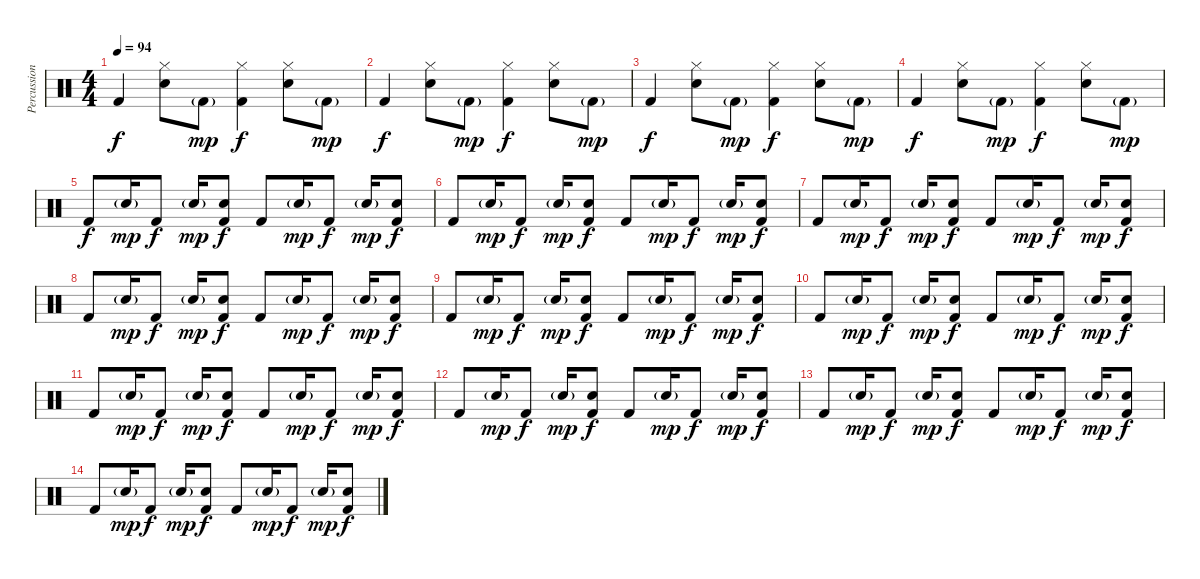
\track ("Percussion" "Percussion") {instrument percussion}
\staff {score}
\articulation defaults
\ts (4 4)
\tempo 94
\clef neutral
\ks c "Kick (hit) 2".4{dy f}
("Hi-Hat (closed)" "Snare (hit) 2").8 "Kick (hit) 2"{g}.8{dy mp} ("Hi-Hat (closed)" "Kick (hit) 2").4{dy f} ("Hi-Hat (closed)" "Snare (hit) 2").8 "Kick (hit) 2"{g}.8{dy mp} |
"Kick (hit) 2".4{dy f} ("Hi-Hat (closed)" "Snare (hit) 2").8 "Kick (hit) 2"{g}.8{dy mp} ("Hi-Hat (closed)" "Kick (hit) 2").4{dy f} ("Hi-Hat (closed)" "Snare (hit) 2").8 "Kick (hit) 2"{g}.8{dy mp} |
"Kick (hit) 2".4{dy f} ("Hi-Hat (closed)" "Snare (hit) 2").8 "Kick (hit) 2"{g}.8{dy mp} ("Hi-Hat (closed)" "Kick (hit) 2").4{dy f} ("Hi-Hat (closed)" "Snare (hit) 2").8 "Kick (hit) 2"{g}.8{dy mp} |
"Kick (hit) 2".4{dy f} ("Hi-Hat (closed)" "Snare (hit) 2").8 "Kick (hit) 2"{g}.8{dy mp} ("Hi-Hat (closed)" "Kick (hit) 2").4{dy f} ("Hi-Hat (closed)" "Snare (hit) 2").8 "Kick (hit) 2"{g}.8{dy mp} |
"Kick (hit) 2".8{dy f} "Snare (hit) 2"{g}.16{dy mp} "Kick (hit) 2".8{dy f} "Snare (hit) 2"{g}.16{dy mp} ("Snare (hit) 2" "Kick (hit) 2").8{dy f} "Kick (hit) 2".8 "Snare (hit) 2"{g}.16{dy mp} "Kick (hit) 2".8{dy f} "Snare (hit) 2"{g}.16{dy mp} ("Snare (hit) 2" "Kick (hit) 2").8{dy f} |
"Kick (hit) 2".8 "Snare (hit) 2"{g}.16{dy mp} "Kick (hit) 2".8{dy f} "Snare (hit) 2"{g}.16{dy mp} ("Snare (hit) 2" "Kick (hit) 2").8{dy f} "Kick (hit) 2".8 "Snare (hit) 2"{g}.16{dy mp} "Kick (hit) 2".8{dy f} "Snare (hit) 2"{g}.16{dy mp} ("Snare (hit) 2" "Kick (hit) 2").8{dy f} |
"Kick (hit) 2".8 "Snare (hit) 2"{g}.16{dy mp} "Kick (hit) 2".8{dy f} "Snare (hit) 2"{g}.16{dy mp} ("Snare (hit) 2" "Kick (hit) 2").8{dy f} "Kick (hit) 2".8 "Snare (hit) 2"{g}.16{dy mp} "Kick (hit) 2".8{dy f} "Snare (hit) 2"{g}.16{dy mp} ("Snare (hit) 2" "Kick (hit) 2").8{dy f} |
"Kick (hit) 2".8 "Snare (hit) 2"{g}.16{dy mp} "Kick (hit) 2".8{dy f} "Snare (hit) 2"{g}.16{dy mp} ("Snare (hit) 2" "Kick (hit) 2").8{dy f} "Kick (hit) 2".8 "Snare (hit) 2"{g}.16{dy mp} "Kick (hit) 2".8{dy f} "Snare (hit) 2"{g}.16{dy mp} ("Snare (hit) 2" "Kick (hit) 2").8{dy f} |
"Kick (hit) 2".8 "Snare (hit) 2"{g}.16{dy mp} "Kick (hit) 2".8{dy f} "Snare (hit) 2"{g}.16{dy mp} ("Snare (hit) 2" "Kick (hit) 2").8{dy f} "Kick (hit) 2".8 "Snare (hit) 2"{g}.16{dy mp} "Kick (hit) 2".8{dy f} "Snare (hit) 2"{g}.16{dy mp} ("Snare (hit) 2" "Kick (hit) 2").8{dy f} |
"Kick (hit) 2".8 "Snare (hit) 2"{g}.16{dy mp} "Kick (hit) 2".8{dy f} "Snare (hit) 2"{g}.16{dy mp} ("Snare (hit) 2" "Kick (hit) 2").8{dy f} "Kick (hit) 2".8 "Snare (hit) 2"{g}.16{dy mp} "Kick (hit) 2".8{dy f} "Snare (hit) 2"{g}.16{dy mp} ("Snare (hit) 2" "Kick (hit) 2").8{dy f} |
"Kick (hit) 2".8 "Snare (hit) 2"{g}.16{dy mp} "Kick (hit) 2".8{dy f} "Snare (hit) 2"{g}.16{dy mp} ("Snare (hit) 2" "Kick (hit) 2").8{dy f} "Kick (hit) 2".8 "Snare (hit) 2"{g}.16{dy mp} "Kick (hit) 2".8{dy f} "Snare (hit) 2"{g}.16{dy mp} ("Snare (hit) 2" "Kick (hit) 2").8{dy f} |
"Kick (hit) 2".8 "Snare (hit) 2"{g}.16{dy mp} "Kick (hit) 2".8{dy f} "Snare (hit) 2"{g}.16{dy mp} ("Snare (hit) 2" "Kick (hit) 2").8{dy f} "Kick (hit) 2".8 "Snare (hit) 2"{g}.16{dy mp} "Kick (hit) 2".8{dy f} "Snare (hit) 2"{g}.16{dy mp} ("Snare (hit) 2" "Kick (hit) 2").8{dy f} |
"Kick (hit) 2".8 "Snare (hit) 2"{g}.16{dy mp} "Kick (hit) 2".8{dy f} "Snare (hit) 2"{g}.16{dy mp} ("Snare (hit) 2" "Kick (hit) 2").8{dy f} "Kick (hit) 2".8 "Snare (hit) 2"{g}.16{dy mp} "Kick (hit) 2".8{dy f} "Snare (hit) 2"{g}.16{dy mp} ("Snare (hit) 2" "Kick (hit) 2").8{dy f} |
"Kick (hit) 2".8 "Snare (hit) 2"{g}.16{dy mp} "Kick (hit) 2".8{dy f} "Snare (hit) 2"{g}.16{dy mp} ("Snare (hit) 2" "Kick (hit) 2").8{dy f} "Kick (hit) 2".8 "Snare (hit) 2"{g}.16{dy mp} "Kick (hit) 2".8{dy f} "Snare (hit) 2"{g}.16{dy mp} ("Snare (hit) 2" "Kick (hit) 2").8{dy f}
